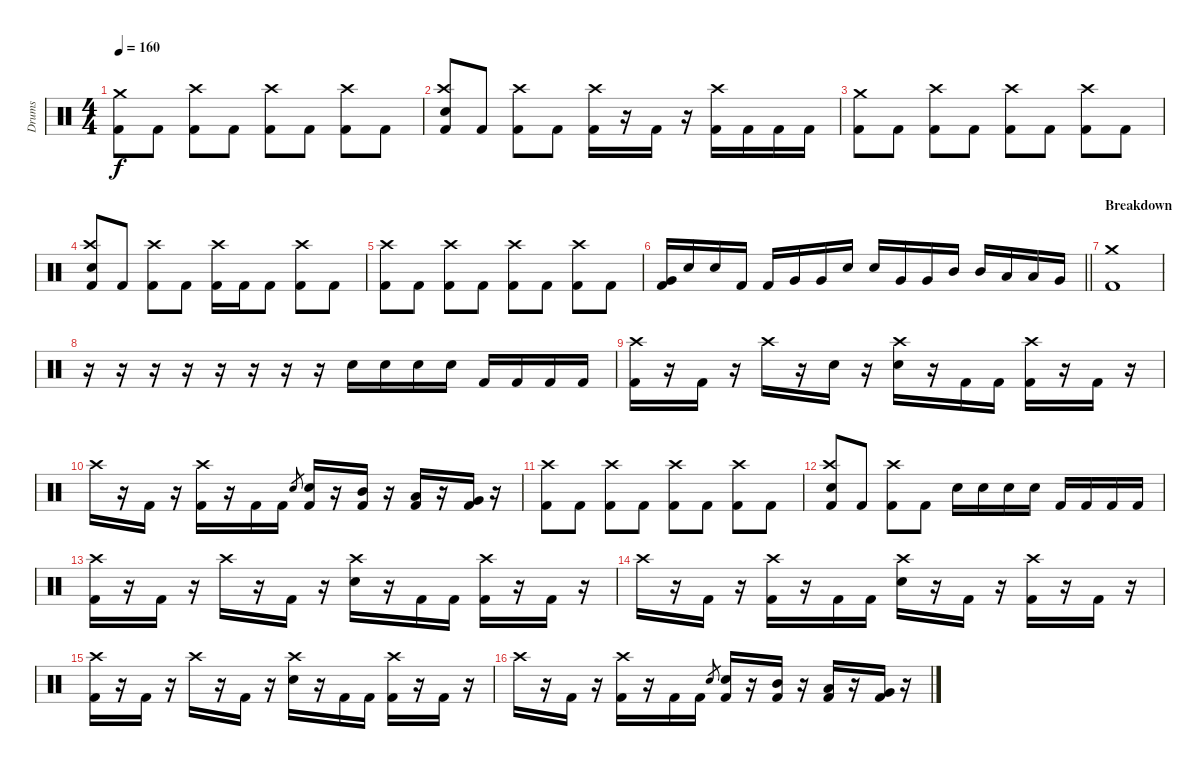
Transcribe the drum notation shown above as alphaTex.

\track ("Drums" "Drums") {instrument percussion}
\staff {score}
\articulation defaults
\ts (4 4)
\tempo 160
\clef neutral
\ks c
("Crash medium (hit)" "Kick (hit) 2").8{dy f} "Kick (hit) 2".8 ("Crash high (hit)" "Kick (hit) 2").8 "Kick (hit) 2".8 ("Crash high (hit)" "Kick (hit) 2").8 "Kick (hit) 2".8 ("Crash high (hit)" "Kick (hit) 2").8 "Kick (hit) 2".8 |
("Crash high (hit)" "Electric Snare (hit)" "Kick (hit) 2").8 "Kick (hit) 2".8 ("Crash high (hit)" "Kick (hit) 2").8 "Kick (hit) 2".8 ("Crash high (hit)" "Kick (hit) 2").16 r.16 "Kick (hit) 2".16 r.16 ("Crash high (hit)" "Kick (hit) 2").16 "Kick (hit) 2".16 "Kick (hit) 2".16 "Kick (hit) 2".16 |
("Crash medium (hit)" "Kick (hit) 2").8 "Kick (hit) 2".8 ("Crash high (hit)" "Kick (hit) 2").8 "Kick (hit) 2".8 ("Crash high (hit)" "Kick (hit) 2").8 "Kick (hit) 2".8 ("Crash high (hit)" "Kick (hit) 2").8 "Kick (hit) 2".8 |
("Crash high (hit)" "Electric Snare (hit)" "Kick (hit) 2").8 "Kick (hit) 2".8 ("Crash high (hit)" "Kick (hit) 2").8 "Kick (hit) 2".8 ("Crash high (hit)" "Kick (hit) 2").16 "Kick (hit) 2".16 "Kick (hit) 2".8 ("Crash high (hit)" "Kick (hit) 2").8 "Kick (hit) 2".8 |
("Crash high (hit)" "Kick (hit) 2").8 "Kick (hit) 2".8 ("Crash high (hit)" "Kick (hit) 2").8 "Kick (hit) 2".8 ("Crash high (hit)" "Kick (hit) 2").8 "Kick (hit) 2".8 ("Crash high (hit)" "Kick (hit) 2").8 "Kick (hit) 2".8 |
\barLineRight lightlight
("Very Low Tom (hit)" "Kick (hit) 2").16 "Electric Snare (hit)".16 "Electric Snare (hit)".16 "Kick (hit) 2".16 "Kick (hit) 2".16 "Very Low Tom (hit)".16 "Very Low Tom (hit)".16 "Electric Snare (hit)".16 "Electric Snare (hit)".16 "Very Low Tom (hit)".16 "Very Low Tom (hit)".16 "Mid Tom (hit)".16 "Mid Tom (hit)".16 "Low Tom (hit)".16 "Low Tom (hit)".16 "Very Low Tom (hit)".16 |
\section ("" "Breakdown")
("Crash medium (hit)" "Kick (hit) 2").1 |
r.16 r.16 r.16 r.16 r.16 r.16 r.16 r.16 "Electric Snare (hit)".16 "Electric Snare (hit)".16 "Electric Snare (hit)".16 "Electric Snare (hit)".16 "Kick (hit) 2".16 "Kick (hit) 2".16 "Kick (hit) 2".16 "Kick (hit) 2".16 |
("Crash high (hit)" "Kick (hit) 2").16 r.16 "Kick (hit) 2".16 r.16 "Crash high (hit)".16 r.16 "Electric Snare (hit)".16 r.16 ("Crash high (hit)" "Electric Snare (hit)").16 r.16 "Kick (hit) 2".16 "Kick (hit) 2".16 ("Crash high (hit)" "Kick (hit) 2").16 r.16 "Kick (hit) 2".16 r.16 |
"Crash high (hit)".16 r.16 "Kick (hit) 2".16 r.16 ("Crash high (hit)" "Kick (hit) 2").16 r.16 "Kick (hit) 2".16 "Kick (hit) 2".16 "Electric Snare (hit)".8{gr} ("Electric Snare (hit)" "Kick (hit) 2").16 r.16 ("Mid Tom (hit)" "Kick (hit) 2").16 r.16 ("Low Tom (hit)" "Kick (hit) 2").16 r.16 ("Very Low Tom (hit)" "Kick (hit) 2").16 r.16 |
("Crash high (hit)" "Kick (hit) 2").8 "Kick (hit) 2".8 ("Crash high (hit)" "Kick (hit) 2").8 "Kick (hit) 2".8 ("Crash high (hit)" "Kick (hit) 2").8 "Kick (hit) 2".8 ("Crash high (hit)" "Kick (hit) 2").8 "Kick (hit) 2".8 |
("Crash high (hit)" "Electric Snare (hit)" "Kick (hit) 2").8 "Kick (hit) 2".8 ("Crash high (hit)" "Kick (hit) 2").8 "Kick (hit) 2".8 "Electric Snare (hit)".16 "Electric Snare (hit)".16 "Electric Snare (hit)".16 "Electric Snare (hit)".16 "Kick (hit) 2".16 "Kick (hit) 2".16 "Kick (hit) 2".16 "Kick (hit) 2".16 |
("Crash high (hit)" "Kick (hit) 2").16 r.16 "Kick (hit) 2".16 r.16 "Crash high (hit)".16 r.16 "Kick (hit) 2".16 r.16 ("Crash high (hit)" "Electric Snare (hit)").16 r.16 "Kick (hit) 2".16 "Kick (hit) 2".16 ("Crash high (hit)" "Kick (hit) 2").16 r.16 "Kick (hit) 2".16 r.16 |
"Crash high (hit)".16 r.16 "Kick (hit) 2".16 r.16 ("Crash high (hit)" "Kick (hit) 2").16 r.16 "Kick (hit) 2".16 "Kick (hit) 2".16 ("Crash high (hit)" "Electric Snare (hit)").16 r.16 "Kick (hit) 2".16 r.16 ("Crash high (hit)" "Kick (hit) 2").16 r.16 "Kick (hit) 2".16 r.16 |
("Crash high (hit)" "Kick (hit) 2").16 r.16 "Kick (hit) 2".16 r.16 "Crash high (hit)".16 r.16 "Kick (hit) 2".16 r.16 ("Crash high (hit)" "Electric Snare (hit)").16 r.16 "Kick (hit) 2".16 "Kick (hit) 2".16 ("Crash high (hit)" "Kick (hit) 2").16 r.16 "Kick (hit) 2".16 r.16 |
"Crash high (hit)".16 r.16 "Kick (hit) 2".16 r.16 ("Crash high (hit)" "Kick (hit) 2").16 r.16 "Kick (hit) 2".16 "Kick (hit) 2".16 "Electric Snare (hit)".8{gr} ("Electric Snare (hit)" "Kick (hit) 2").16 r.16 ("Mid Tom (hit)" "Kick (hit) 2").16 r.16 ("Low Tom (hit)" "Kick (hit) 2").16 r.16 ("Very Low Tom (hit)" "Kick (hit) 2").16 r.16
